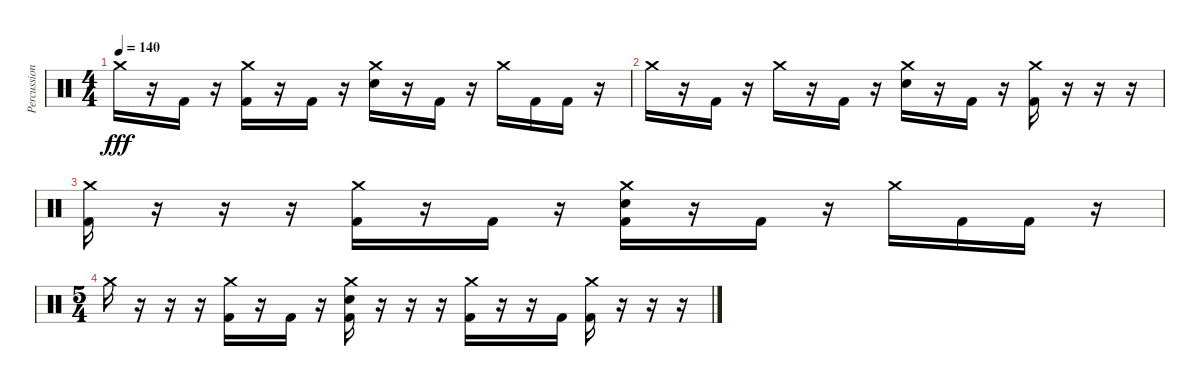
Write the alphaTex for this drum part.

\track ("Percussion" "Percussion") {instrument percussion bank 84}
\staff {score}
\articulation defaults
\ts (4 4)
\tempo 140
\clef neutral
\ks c "Crash medium (hit)".16{dy fff}
r.16 "Kick (hit) 2".16 r.16 ("Crash medium (hit)" "Kick (hit) 2").16 r.16 "Kick (hit) 2".16 r.16 ("Crash medium (hit)" "Electric Snare (hit)").16 r.16 "Kick (hit) 2".16 r.16 "Crash medium (hit)".16 "Kick (hit) 2".16 "Kick (hit) 2".16 r.16 |
"Crash medium (hit)".16 r.16 "Kick (hit) 2".16 r.16 "Crash medium (hit)".16 r.16 "Kick (hit) 2".16 r.16 ("Crash medium (hit)" "Electric Snare (hit)").16 r.16 "Kick (hit) 2".16 r.16 ("Crash medium (hit)" "Kick (hit) 2").16 r.16 r.16 r.16 |
("Crash medium (hit)" "Kick (hit) 2").16 r.16 r.16 r.16 ("Crash medium (hit)" "Kick (hit) 2").16 r.16 "Kick (hit) 2".16 r.16 ("Crash medium (hit)" "Electric Snare (hit)" "Kick (hit) 2").16 r.16 "Kick (hit) 2".16 r.16 "Crash medium (hit)".16 "Kick (hit) 2".16 "Kick (hit) 2".16 r.16 |
\ts (5 4)
"Crash medium (hit)".16 r.16 r.16 r.16 ("Crash medium (hit)" "Kick (hit) 2").16 r.16 "Kick (hit) 2".16 r.16 ("Crash medium (hit)" "Electric Snare (hit)" "Kick (hit) 2").16 r.16 r.16 r.16 ("Crash medium (hit)" "Kick (hit) 2").16 r.16 r.16 "Kick (hit) 2".16 ("Crash medium (hit)" "Kick (hit) 2").16 r.16 r.16 r.16
